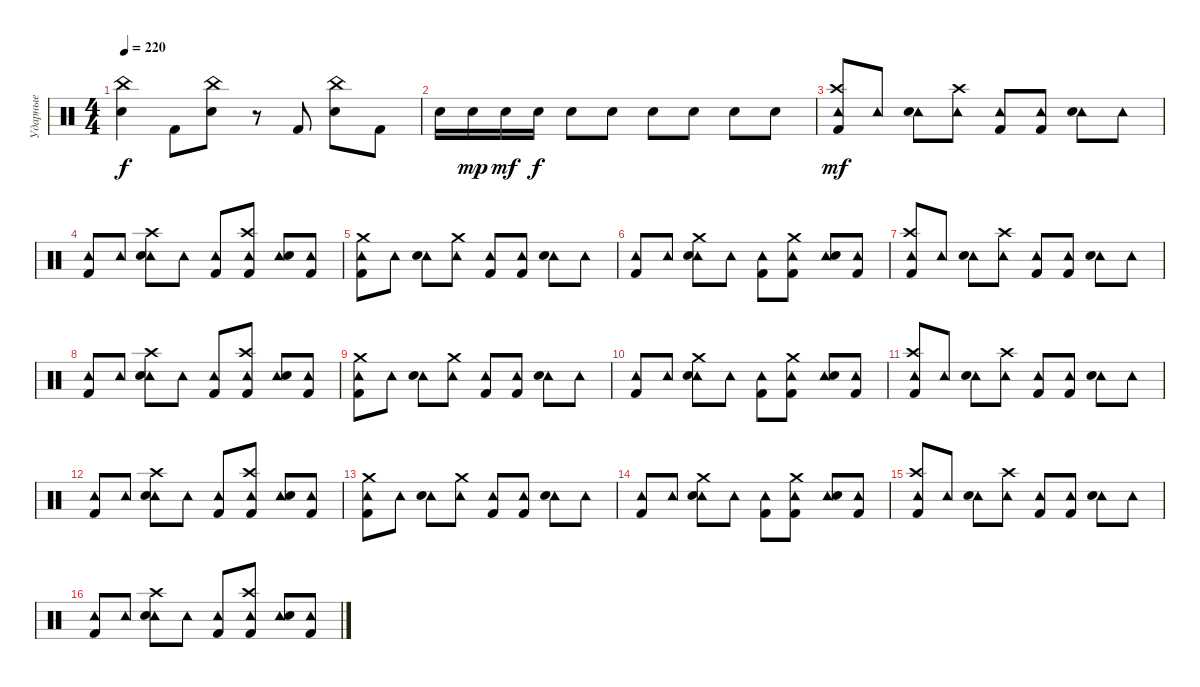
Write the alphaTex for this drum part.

\track ("Ударные" "Ударные") {instrument percussion}
\staff {score}
\articulation defaults
\ts (4 4)
\tempo 220
\clef neutral
\ks c
("China (hit)" "Electric Snare (hit)").4{dy f} "Kick (hit) 2".8 ("China (hit)" "Electric Snare (hit)").8 r.8 "Kick (hit) 2".8 ("China (hit)" "Electric Snare (hit)").8 "Kick (hit) 2".8 |
"Electric Snare (hit)".16 "Electric Snare (hit)".16{dy mp} "Electric Snare (hit)".16{dy mf} "Electric Snare (hit)".16{dy f} "Electric Snare (hit)".8 "Electric Snare (hit)".8 "Electric Snare (hit)".8 "Electric Snare (hit)".8 "Electric Snare (hit)".8 "Electric Snare (hit)".8 |
("Crash high (hit)" "Tambourine (hit)" "Kick (hit) 2").8{dy mf} "Tambourine (hit)".8 ("Tambourine (hit)" "Electric Snare (hit)").8 ("Crash high (hit)" "Tambourine (hit)").8 ("Tambourine (hit)" "Kick (hit) 2").8 ("Tambourine (hit)" "Kick (hit) 2").8 ("Tambourine (hit)" "Electric Snare (hit)").8 "Tambourine (hit)".8 |
("Tambourine (hit)" "Kick (hit) 2").8 "Tambourine (hit)".8 ("Crash high (hit)" "Tambourine (hit)" "Electric Snare (hit)").8 "Tambourine (hit)".8 ("Tambourine (hit)" "Kick (hit) 2").8 ("Crash high (hit)" "Tambourine (hit)" "Kick (hit) 2").8 ("Tambourine (hit)" "Electric Snare (hit)").8 ("Tambourine (hit)" "Kick (hit) 2").8 |
("Crash medium (hit)" "Tambourine (hit)" "Kick (hit) 2").8 "Tambourine (hit)".8 ("Tambourine (hit)" "Electric Snare (hit)").8 ("Crash medium (hit)" "Tambourine (hit)").8 ("Tambourine (hit)" "Kick (hit) 2").8 ("Tambourine (hit)" "Kick (hit) 2").8 ("Tambourine (hit)" "Electric Snare (hit)").8 "Tambourine (hit)".8 |
("Tambourine (hit)" "Kick (hit) 2").8 "Tambourine (hit)".8 ("Crash medium (hit)" "Tambourine (hit)" "Electric Snare (hit)").8 "Tambourine (hit)".8 ("Tambourine (hit)" "Kick (hit) 2").8 ("Crash medium (hit)" "Tambourine (hit)" "Kick (hit) 2").8 ("Tambourine (hit)" "Electric Snare (hit)").8 ("Tambourine (hit)" "Kick (hit) 2").8 |
("Crash high (hit)" "Tambourine (hit)" "Kick (hit) 2").8 "Tambourine (hit)".8 ("Tambourine (hit)" "Electric Snare (hit)").8 ("Crash high (hit)" "Tambourine (hit)").8 ("Tambourine (hit)" "Kick (hit) 2").8 ("Tambourine (hit)" "Kick (hit) 2").8 ("Tambourine (hit)" "Electric Snare (hit)").8 "Tambourine (hit)".8 |
("Tambourine (hit)" "Kick (hit) 2").8 "Tambourine (hit)".8 ("Crash high (hit)" "Tambourine (hit)" "Electric Snare (hit)").8 "Tambourine (hit)".8 ("Tambourine (hit)" "Kick (hit) 2").8 ("Crash high (hit)" "Tambourine (hit)" "Kick (hit) 2").8 ("Tambourine (hit)" "Electric Snare (hit)").8 ("Tambourine (hit)" "Kick (hit) 2").8 |
("Crash medium (hit)" "Tambourine (hit)" "Kick (hit) 2").8 "Tambourine (hit)".8 ("Tambourine (hit)" "Electric Snare (hit)").8 ("Crash medium (hit)" "Tambourine (hit)").8 ("Tambourine (hit)" "Kick (hit) 2").8 ("Tambourine (hit)" "Kick (hit) 2").8 ("Tambourine (hit)" "Electric Snare (hit)").8 "Tambourine (hit)".8 |
("Tambourine (hit)" "Kick (hit) 2").8 "Tambourine (hit)".8 ("Crash medium (hit)" "Tambourine (hit)" "Electric Snare (hit)").8 "Tambourine (hit)".8 ("Tambourine (hit)" "Kick (hit) 2").8 ("Crash medium (hit)" "Tambourine (hit)" "Kick (hit) 2").8 ("Tambourine (hit)" "Electric Snare (hit)").8 ("Tambourine (hit)" "Kick (hit) 2").8 |
("Crash high (hit)" "Tambourine (hit)" "Kick (hit) 2").8 "Tambourine (hit)".8 ("Tambourine (hit)" "Electric Snare (hit)").8 ("Crash high (hit)" "Tambourine (hit)").8 ("Tambourine (hit)" "Kick (hit) 2").8 ("Tambourine (hit)" "Kick (hit) 2").8 ("Tambourine (hit)" "Electric Snare (hit)").8 "Tambourine (hit)".8 |
("Tambourine (hit)" "Kick (hit) 2").8 "Tambourine (hit)".8 ("Crash high (hit)" "Tambourine (hit)" "Electric Snare (hit)").8 "Tambourine (hit)".8 ("Tambourine (hit)" "Kick (hit) 2").8 ("Crash high (hit)" "Tambourine (hit)" "Kick (hit) 2").8 ("Tambourine (hit)" "Electric Snare (hit)").8 ("Tambourine (hit)" "Kick (hit) 2").8 |
("Crash medium (hit)" "Tambourine (hit)" "Kick (hit) 2").8 "Tambourine (hit)".8 ("Tambourine (hit)" "Electric Snare (hit)").8 ("Crash medium (hit)" "Tambourine (hit)").8 ("Tambourine (hit)" "Kick (hit) 2").8 ("Tambourine (hit)" "Kick (hit) 2").8 ("Tambourine (hit)" "Electric Snare (hit)").8 "Tambourine (hit)".8 |
("Tambourine (hit)" "Kick (hit) 2").8 "Tambourine (hit)".8 ("Crash medium (hit)" "Tambourine (hit)" "Electric Snare (hit)").8 "Tambourine (hit)".8 ("Tambourine (hit)" "Kick (hit) 2").8 ("Crash medium (hit)" "Tambourine (hit)" "Kick (hit) 2").8 ("Tambourine (hit)" "Electric Snare (hit)").8 ("Tambourine (hit)" "Kick (hit) 2").8 |
("Crash high (hit)" "Tambourine (hit)" "Kick (hit) 2").8 "Tambourine (hit)".8 ("Tambourine (hit)" "Electric Snare (hit)").8 ("Crash high (hit)" "Tambourine (hit)").8 ("Tambourine (hit)" "Kick (hit) 2").8 ("Tambourine (hit)" "Kick (hit) 2").8 ("Tambourine (hit)" "Electric Snare (hit)").8 "Tambourine (hit)".8 |
("Tambourine (hit)" "Kick (hit) 2").8 "Tambourine (hit)".8 ("Crash high (hit)" "Tambourine (hit)" "Electric Snare (hit)").8 "Tambourine (hit)".8 ("Tambourine (hit)" "Kick (hit) 2").8 ("Crash high (hit)" "Tambourine (hit)" "Kick (hit) 2").8 ("Tambourine (hit)" "Electric Snare (hit)").8 ("Tambourine (hit)" "Kick (hit) 2").8
